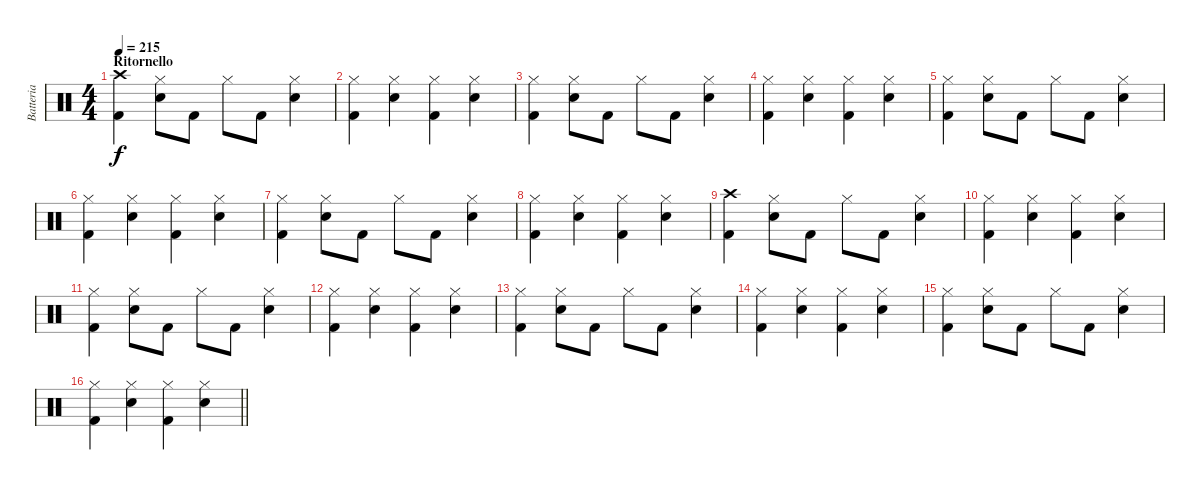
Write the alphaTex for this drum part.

\track ("Batteria" "Batteria") {instrument percussion}
\staff {score}
\articulation defaults
\ts (4 4)
\section ("" "Ritornello")
\tempo 215
\clef neutral
\ks c
("Crash high (hit)" "Kick (hit) 2").4{dy f} ("Hi-Hat (closed)" "Electric Snare (hit)").8 "Kick (hit) 2".8 "Hi-Hat (closed)".8 "Kick (hit) 2".8 ("Hi-Hat (closed)" "Electric Snare (hit)").4 |
("Hi-Hat (closed)" "Kick (hit) 2").4 ("Hi-Hat (closed)" "Electric Snare (hit)").4 ("Hi-Hat (closed)" "Kick (hit) 2").4 ("Hi-Hat (closed)" "Electric Snare (hit)").4 |
("Hi-Hat (closed)" "Kick (hit) 2").4 ("Hi-Hat (closed)" "Electric Snare (hit)").8 "Kick (hit) 2".8 "Hi-Hat (closed)".8 "Kick (hit) 2".8 ("Hi-Hat (closed)" "Electric Snare (hit)").4 |
("Hi-Hat (closed)" "Kick (hit) 2").4 ("Hi-Hat (closed)" "Electric Snare (hit)").4 ("Hi-Hat (closed)" "Kick (hit) 2").4 ("Hi-Hat (closed)" "Electric Snare (hit)").4 |
("Hi-Hat (closed)" "Kick (hit) 2").4 ("Hi-Hat (closed)" "Electric Snare (hit)").8 "Kick (hit) 2".8 "Hi-Hat (closed)".8 "Kick (hit) 2".8 ("Hi-Hat (closed)" "Electric Snare (hit)").4 |
("Hi-Hat (closed)" "Kick (hit) 2").4 ("Hi-Hat (closed)" "Electric Snare (hit)").4 ("Hi-Hat (closed)" "Kick (hit) 2").4 ("Hi-Hat (closed)" "Electric Snare (hit)").4 |
("Hi-Hat (closed)" "Kick (hit) 2").4 ("Hi-Hat (closed)" "Electric Snare (hit)").8 "Kick (hit) 2".8 "Hi-Hat (closed)".8 "Kick (hit) 2".8 ("Hi-Hat (closed)" "Electric Snare (hit)").4 |
("Hi-Hat (closed)" "Kick (hit) 2").4 ("Hi-Hat (closed)" "Electric Snare (hit)").4 ("Hi-Hat (closed)" "Kick (hit) 2").4 ("Hi-Hat (closed)" "Electric Snare (hit)").4 |
("Crash high (hit)" "Kick (hit) 2").4 ("Hi-Hat (closed)" "Electric Snare (hit)").8 "Kick (hit) 2".8 "Hi-Hat (closed)".8 "Kick (hit) 2".8 ("Hi-Hat (closed)" "Electric Snare (hit)").4 |
("Hi-Hat (closed)" "Kick (hit) 2").4 ("Hi-Hat (closed)" "Electric Snare (hit)").4 ("Hi-Hat (closed)" "Kick (hit) 2").4 ("Hi-Hat (closed)" "Electric Snare (hit)").4 |
("Hi-Hat (closed)" "Kick (hit) 2").4 ("Hi-Hat (closed)" "Electric Snare (hit)").8 "Kick (hit) 2".8 "Hi-Hat (closed)".8 "Kick (hit) 2".8 ("Hi-Hat (closed)" "Electric Snare (hit)").4 |
("Hi-Hat (closed)" "Kick (hit) 2").4 ("Hi-Hat (closed)" "Electric Snare (hit)").4 ("Hi-Hat (closed)" "Kick (hit) 2").4 ("Hi-Hat (closed)" "Electric Snare (hit)").4 |
("Hi-Hat (closed)" "Kick (hit) 2").4 ("Hi-Hat (closed)" "Electric Snare (hit)").8 "Kick (hit) 2".8 "Hi-Hat (closed)".8 "Kick (hit) 2".8 ("Hi-Hat (closed)" "Electric Snare (hit)").4 |
("Hi-Hat (closed)" "Kick (hit) 2").4 ("Hi-Hat (closed)" "Electric Snare (hit)").4 ("Hi-Hat (closed)" "Kick (hit) 2").4 ("Hi-Hat (closed)" "Electric Snare (hit)").4 |
("Hi-Hat (closed)" "Kick (hit) 2").4 ("Hi-Hat (closed)" "Electric Snare (hit)").8 "Kick (hit) 2".8 "Hi-Hat (closed)".8 "Kick (hit) 2".8 ("Hi-Hat (closed)" "Electric Snare (hit)").4 |
\barLineRight lightlight
("Hi-Hat (closed)" "Kick (hit) 2").4 ("Hi-Hat (closed)" "Electric Snare (hit)").4 ("Hi-Hat (closed)" "Kick (hit) 2").4 ("Hi-Hat (closed)" "Electric Snare (hit)").4
